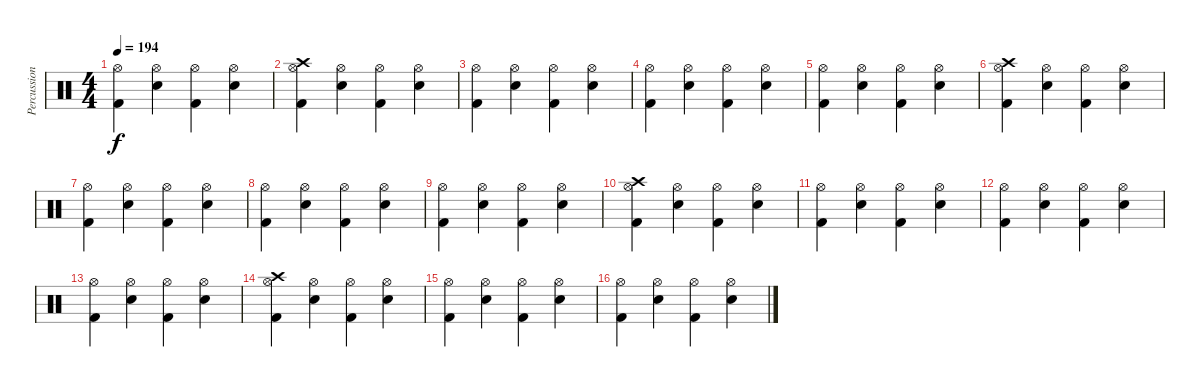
\track ("Percussion" "Percussion") {instrument percussion}
\staff {score}
\articulation defaults
\ts (4 4)
\tempo 194
\clef neutral
\ks c
("Hi-Hat (open)" "Kick (hit) 2").4{dy f} ("Hi-Hat (open)" "Electric Snare (hit)").4 ("Hi-Hat (open)" "Kick (hit) 2").4 ("Hi-Hat (open)" "Electric Snare (hit)").4 |
("Crash high (hit)" "Hi-Hat (open)" "Kick (hit) 2").4 ("Hi-Hat (open)" "Electric Snare (hit)").4 ("Hi-Hat (open)" "Kick (hit) 2").4 ("Hi-Hat (open)" "Electric Snare (hit)").4 |
("Hi-Hat (open)" "Kick (hit) 2").4 ("Hi-Hat (open)" "Electric Snare (hit)").4 ("Hi-Hat (open)" "Kick (hit) 2").4 ("Hi-Hat (open)" "Electric Snare (hit)").4 |
("Hi-Hat (open)" "Kick (hit) 2").4 ("Hi-Hat (open)" "Electric Snare (hit)").4 ("Hi-Hat (open)" "Kick (hit) 2").4 ("Hi-Hat (open)" "Electric Snare (hit)").4 |
("Hi-Hat (open)" "Kick (hit) 2").4 ("Hi-Hat (open)" "Electric Snare (hit)").4 ("Hi-Hat (open)" "Kick (hit) 2").4 ("Hi-Hat (open)" "Electric Snare (hit)").4 |
("Crash high (hit)" "Hi-Hat (open)" "Kick (hit) 2").4 ("Hi-Hat (open)" "Electric Snare (hit)").4 ("Hi-Hat (open)" "Kick (hit) 2").4 ("Hi-Hat (open)" "Electric Snare (hit)").4 |
("Hi-Hat (open)" "Kick (hit) 2").4 ("Hi-Hat (open)" "Electric Snare (hit)").4 ("Hi-Hat (open)" "Kick (hit) 2").4 ("Hi-Hat (open)" "Electric Snare (hit)").4 |
("Hi-Hat (open)" "Kick (hit) 2").4 ("Hi-Hat (open)" "Electric Snare (hit)").4 ("Hi-Hat (open)" "Kick (hit) 2").4 ("Hi-Hat (open)" "Electric Snare (hit)").4 |
("Hi-Hat (open)" "Kick (hit) 2").4 ("Hi-Hat (open)" "Electric Snare (hit)").4 ("Hi-Hat (open)" "Kick (hit) 2").4 ("Hi-Hat (open)" "Electric Snare (hit)").4 |
("Crash high (hit)" "Hi-Hat (open)" "Kick (hit) 2").4 ("Hi-Hat (open)" "Electric Snare (hit)").4 ("Hi-Hat (open)" "Kick (hit) 2").4 ("Hi-Hat (open)" "Electric Snare (hit)").4 |
("Hi-Hat (open)" "Kick (hit) 2").4 ("Hi-Hat (open)" "Electric Snare (hit)").4 ("Hi-Hat (open)" "Kick (hit) 2").4 ("Hi-Hat (open)" "Electric Snare (hit)").4 |
("Hi-Hat (open)" "Kick (hit) 2").4 ("Hi-Hat (open)" "Electric Snare (hit)").4 ("Hi-Hat (open)" "Kick (hit) 2").4 ("Hi-Hat (open)" "Electric Snare (hit)").4 |
("Hi-Hat (open)" "Kick (hit) 2").4 ("Hi-Hat (open)" "Electric Snare (hit)").4 ("Hi-Hat (open)" "Kick (hit) 2").4 ("Hi-Hat (open)" "Electric Snare (hit)").4 |
("Crash high (hit)" "Hi-Hat (open)" "Kick (hit) 2").4 ("Hi-Hat (open)" "Electric Snare (hit)").4 ("Hi-Hat (open)" "Kick (hit) 2").4 ("Hi-Hat (open)" "Electric Snare (hit)").4 |
("Hi-Hat (open)" "Kick (hit) 2").4 ("Hi-Hat (open)" "Electric Snare (hit)").4 ("Hi-Hat (open)" "Kick (hit) 2").4 ("Hi-Hat (open)" "Electric Snare (hit)").4 |
("Hi-Hat (open)" "Kick (hit) 2").4 ("Hi-Hat (open)" "Electric Snare (hit)").4 ("Hi-Hat (open)" "Kick (hit) 2").4 ("Hi-Hat (open)" "Electric Snare (hit)").4
